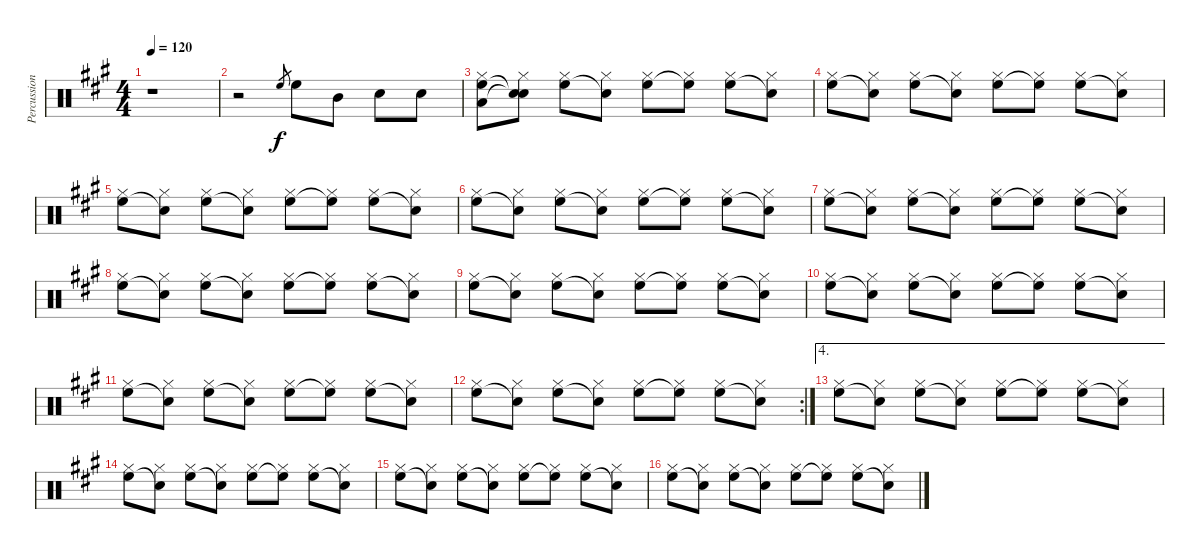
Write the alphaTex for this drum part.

\track ("Percussion" "Percussion") {instrument percussion}
\staff {score}
\articulation defaults
\ts (4 4)
\tempo 120
\clef neutral
\ks a
r.1{dy f} |
r.2 "High Floor Tom (hit)".8{gr} "High Floor Tom (hit)".8 "Mid Tom (hit)".8 "Snare (hit) 2".8 "Snare (hit) 2".8 |
("Hi-Hat (closed)" "High Floor Tom (hit)" "Low Floor Tom (hit)").8 ("Hi-Hat (closed)" "Snare (hit)"{t} "Snare (hit)"{t}).8 ("Hi-Hat (closed)" "High Floor Tom (hit)").8 ("Hi-Hat (closed)" "Snare (hit)"{t}).8 ("Hi-Hat (closed)" "High Floor Tom (hit)").8 ("Hi-Hat (closed)" "High Floor Tom (hit)"{t}).8 ("Hi-Hat (closed)" "High Floor Tom (hit)").8 ("Hi-Hat (closed)" "Snare (hit)"{t}).8 |
("Hi-Hat (closed)" "High Floor Tom (hit)").8 ("Hi-Hat (closed)" "Snare (hit)"{t}).8 ("Hi-Hat (closed)" "High Floor Tom (hit)").8 ("Hi-Hat (closed)" "Snare (hit)"{t}).8 ("Hi-Hat (closed)" "High Floor Tom (hit)").8 ("Hi-Hat (closed)" "High Floor Tom (hit)"{t}).8 ("Hi-Hat (closed)" "High Floor Tom (hit)").8 ("Hi-Hat (closed)" "Snare (hit)"{t}).8 |
("Hi-Hat (closed)" "High Floor Tom (hit)").8 ("Hi-Hat (closed)" "Snare (hit)"{t}).8 ("Hi-Hat (closed)" "High Floor Tom (hit)").8 ("Hi-Hat (closed)" "Snare (hit)"{t}).8 ("Hi-Hat (closed)" "High Floor Tom (hit)").8 ("Hi-Hat (closed)" "High Floor Tom (hit)"{t}).8 ("Hi-Hat (closed)" "High Floor Tom (hit)").8 ("Hi-Hat (closed)" "Snare (hit)"{t}).8 |
("Hi-Hat (closed)" "High Floor Tom (hit)").8 ("Hi-Hat (closed)" "Snare (hit)"{t}).8 ("Hi-Hat (closed)" "High Floor Tom (hit)").8 ("Hi-Hat (closed)" "Snare (hit)"{t}).8 ("Hi-Hat (closed)" "High Floor Tom (hit)").8 ("Hi-Hat (closed)" "High Floor Tom (hit)"{t}).8 ("Hi-Hat (closed)" "High Floor Tom (hit)").8 ("Hi-Hat (closed)" "Snare (hit)"{t}).8 |
("Hi-Hat (closed)" "High Floor Tom (hit)").8 ("Hi-Hat (closed)" "Snare (hit)"{t}).8 ("Hi-Hat (closed)" "High Floor Tom (hit)").8 ("Hi-Hat (closed)" "Snare (hit)"{t}).8 ("Hi-Hat (closed)" "High Floor Tom (hit)").8 ("Hi-Hat (closed)" "High Floor Tom (hit)"{t}).8 ("Hi-Hat (closed)" "High Floor Tom (hit)").8 ("Hi-Hat (closed)" "Snare (hit)"{t}).8 |
("Hi-Hat (closed)" "High Floor Tom (hit)").8 ("Hi-Hat (closed)" "Snare (hit)"{t}).8 ("Hi-Hat (closed)" "High Floor Tom (hit)").8 ("Hi-Hat (closed)" "Snare (hit)"{t}).8 ("Hi-Hat (closed)" "High Floor Tom (hit)").8 ("Hi-Hat (closed)" "High Floor Tom (hit)"{t}).8 ("Hi-Hat (closed)" "High Floor Tom (hit)").8 ("Hi-Hat (closed)" "Snare (hit)"{t}).8 |
("Hi-Hat (closed)" "High Floor Tom (hit)").8 ("Hi-Hat (closed)" "Snare (hit)"{t}).8 ("Hi-Hat (closed)" "High Floor Tom (hit)").8 ("Hi-Hat (closed)" "Snare (hit)"{t}).8 ("Hi-Hat (closed)" "High Floor Tom (hit)").8 ("Hi-Hat (closed)" "High Floor Tom (hit)"{t}).8 ("Hi-Hat (closed)" "High Floor Tom (hit)").8 ("Hi-Hat (closed)" "Snare (hit)"{t}).8 |
("Hi-Hat (closed)" "High Floor Tom (hit)").8 ("Hi-Hat (closed)" "Snare (hit)"{t}).8 ("Hi-Hat (closed)" "High Floor Tom (hit)").8 ("Hi-Hat (closed)" "Snare (hit)"{t}).8 ("Hi-Hat (closed)" "High Floor Tom (hit)").8 ("Hi-Hat (closed)" "High Floor Tom (hit)"{t}).8 ("Hi-Hat (closed)" "High Floor Tom (hit)").8 ("Hi-Hat (closed)" "Snare (hit)"{t}).8 |
("Hi-Hat (closed)" "High Floor Tom (hit)").8 ("Hi-Hat (closed)" "Snare (hit)"{t}).8 ("Hi-Hat (closed)" "High Floor Tom (hit)").8 ("Hi-Hat (closed)" "Snare (hit)"{t}).8 ("Hi-Hat (closed)" "High Floor Tom (hit)").8 ("Hi-Hat (closed)" "High Floor Tom (hit)"{t}).8 ("Hi-Hat (closed)" "High Floor Tom (hit)").8 ("Hi-Hat (closed)" "Snare (hit)"{t}).8 |
\rc 2
("Hi-Hat (closed)" "High Floor Tom (hit)").8 ("Hi-Hat (closed)" "Snare (hit)"{t}).8 ("Hi-Hat (closed)" "High Floor Tom (hit)").8 ("Hi-Hat (closed)" "Snare (hit)"{t}).8 ("Hi-Hat (closed)" "High Floor Tom (hit)").8 ("Hi-Hat (closed)" "High Floor Tom (hit)"{t}).8 ("Hi-Hat (closed)" "High Floor Tom (hit)").8 ("Hi-Hat (closed)" "Snare (hit)"{t}).8 |
\ae 4
("Hi-Hat (closed)" "High Floor Tom (hit)").8 ("Hi-Hat (closed)" "Snare (hit)"{t}).8 ("Hi-Hat (closed)" "High Floor Tom (hit)").8 ("Hi-Hat (closed)" "Snare (hit)"{t}).8 ("Hi-Hat (closed)" "High Floor Tom (hit)").8 ("Hi-Hat (closed)" "High Floor Tom (hit)"{t}).8 ("Hi-Hat (closed)" "High Floor Tom (hit)").8 ("Hi-Hat (closed)" "Snare (hit)"{t}).8 |
("Hi-Hat (closed)" "High Floor Tom (hit)").8 ("Hi-Hat (closed)" "Snare (hit)"{t}).8 ("Hi-Hat (closed)" "High Floor Tom (hit)").8 ("Hi-Hat (closed)" "Snare (hit)"{t}).8 ("Hi-Hat (closed)" "High Floor Tom (hit)").8 ("Hi-Hat (closed)" "High Floor Tom (hit)"{t}).8 ("Hi-Hat (closed)" "High Floor Tom (hit)").8 ("Hi-Hat (closed)" "Snare (hit)"{t}).8 |
("Hi-Hat (closed)" "High Floor Tom (hit)").8 ("Hi-Hat (closed)" "Snare (hit)"{t}).8 ("Hi-Hat (closed)" "High Floor Tom (hit)").8 ("Hi-Hat (closed)" "Snare (hit)"{t}).8 ("Hi-Hat (closed)" "High Floor Tom (hit)").8 ("Hi-Hat (closed)" "High Floor Tom (hit)"{t}).8 ("Hi-Hat (closed)" "High Floor Tom (hit)").8 ("Hi-Hat (closed)" "Snare (hit)"{t}).8 |
("Hi-Hat (closed)" "High Floor Tom (hit)").8 ("Hi-Hat (closed)" "Snare (hit)"{t}).8 ("Hi-Hat (closed)" "High Floor Tom (hit)").8 ("Hi-Hat (closed)" "Snare (hit)"{t}).8 ("Hi-Hat (closed)" "High Floor Tom (hit)").8 ("Hi-Hat (closed)" "High Floor Tom (hit)"{t}).8 ("Hi-Hat (closed)" "High Floor Tom (hit)").8 ("Hi-Hat (closed)" "Snare (hit)"{t}).8
